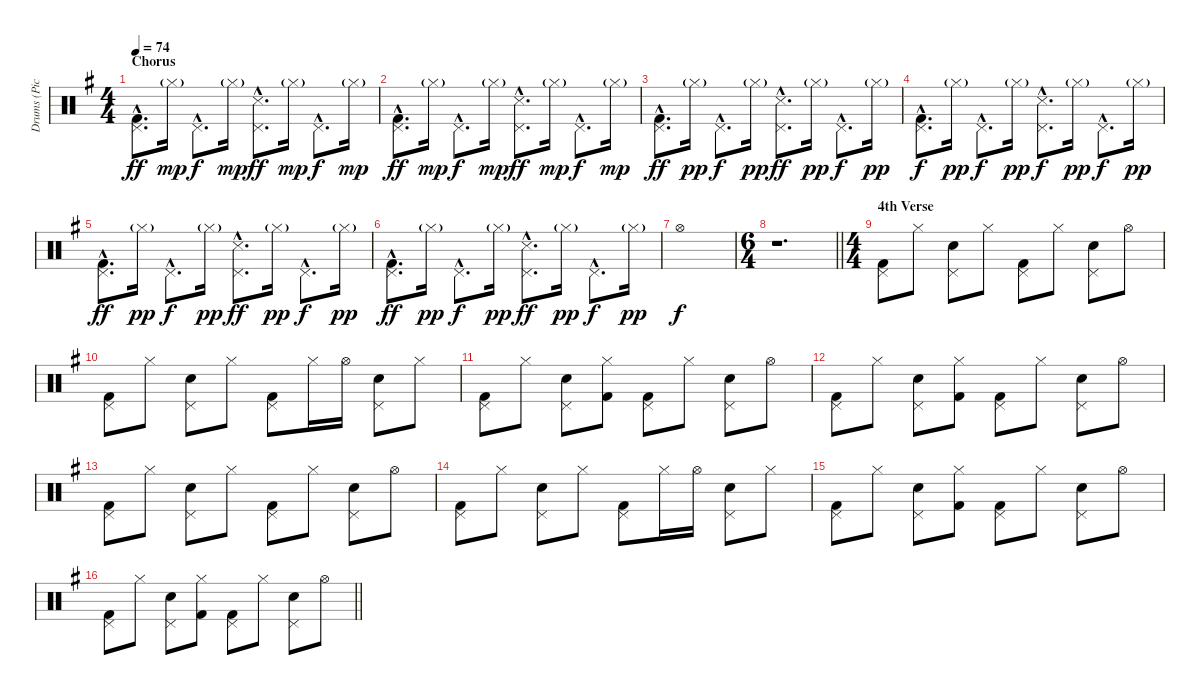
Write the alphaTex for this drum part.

\track ("Drums (Pick)" "Drums (Pic") {instrument percussion}
\staff {score}
\articulation defaults
\ts (4 4)
\section ("" "Chorus")
\tempo 74
\clef neutral
\ks g
("Pedal Hi-Hat (hit)"{hac} "Kick (hit) 2"{hac}).8{d dy ff} "Hi-Hat (closed)"{g}.16{dy mp} "Pedal Hi-Hat (hit)"{hac}.8{d dy f} "Hi-Hat (closed)"{g}.16{dy mp} ("Pedal Hi-Hat (hit)"{hac} "Snare (side stick) 3"{hac}).8{d dy ff} "Hi-Hat (closed)"{g}.16{dy mp} "Pedal Hi-Hat (hit)"{hac}.8{d dy f} "Hi-Hat (closed)"{g}.16{dy mp} |
("Pedal Hi-Hat (hit)"{hac} "Kick (hit) 2"{hac}).8{d dy ff} "Hi-Hat (closed)"{g}.16{dy mp} "Pedal Hi-Hat (hit)"{hac}.8{d dy f} "Hi-Hat (closed)"{g}.16{dy mp} ("Pedal Hi-Hat (hit)"{hac} "Snare (side stick) 3"{hac}).8{d dy ff} "Hi-Hat (closed)"{g}.16{dy mp} "Pedal Hi-Hat (hit)"{hac}.8{d dy f} "Hi-Hat (closed)"{g}.16{dy mp} |
("Pedal Hi-Hat (hit)"{hac} "Kick (hit) 2"{hac}).8{d dy ff} "Hi-Hat (closed)"{g}.16{dy pp} "Pedal Hi-Hat (hit)"{hac}.8{d dy f} "Hi-Hat (closed)"{g}.16{dy pp} ("Pedal Hi-Hat (hit)"{hac} "Snare (side stick) 3"{hac}).8{d dy ff} "Hi-Hat (closed)"{g}.16{dy pp} "Pedal Hi-Hat (hit)"{hac}.8{d dy f} "Hi-Hat (closed)"{g}.16{dy pp} |
("Pedal Hi-Hat (hit)"{hac} "Kick (hit) 2"{hac}).8{d dy f} "Hi-Hat (closed)"{g}.16{dy pp} "Pedal Hi-Hat (hit)"{hac}.8{d dy f} "Hi-Hat (closed)"{g}.16{dy pp} ("Pedal Hi-Hat (hit)"{hac} "Snare (side stick) 3"{hac}).8{d dy f} "Hi-Hat (closed)"{g}.16{dy pp} "Pedal Hi-Hat (hit)"{hac}.8{d dy f} "Hi-Hat (closed)"{g}.16{dy pp} |
("Pedal Hi-Hat (hit)"{hac} "Kick (hit) 2"{hac}).8{d dy ff} "Hi-Hat (closed)"{g}.16{dy pp} "Pedal Hi-Hat (hit)"{hac}.8{d dy f} "Hi-Hat (closed)"{g}.16{dy pp} ("Pedal Hi-Hat (hit)"{hac} "Snare (side stick) 3"{hac}).8{d dy ff} "Hi-Hat (closed)"{g}.16{dy pp} "Pedal Hi-Hat (hit)"{hac}.8{d dy f} "Hi-Hat (closed)"{g}.16{dy pp} |
("Pedal Hi-Hat (hit)"{hac} "Kick (hit) 2"{hac}).8{d dy ff} "Hi-Hat (closed)"{g}.16{dy pp} "Pedal Hi-Hat (hit)"{hac}.8{d dy f} "Hi-Hat (closed)"{g}.16{dy pp} ("Pedal Hi-Hat (hit)"{hac} "Snare (side stick) 3"{hac}).8{d dy ff} "Hi-Hat (closed)"{g}.16{dy pp} "Pedal Hi-Hat (hit)"{hac}.8{d dy f} "Hi-Hat (closed)"{g}.16{dy pp} |
"Hi-Hat (open)".1{dy f} |
\ts (6 4)
\barLineRight lightlight
r.1{d} |
\ts (4 4)
\section ("" "4th Verse")
("Kick (hit) 2" "Pedal Hi-Hat (hit)").8 "Hi-Hat (closed)".8 ("Snare (hit) 2" "Pedal Hi-Hat (hit)").8 "Hi-Hat (closed)".8 ("Kick (hit) 2" "Pedal Hi-Hat (hit)").8 "Hi-Hat (closed)".8 ("Snare (hit) 2" "Pedal Hi-Hat (hit)").8 "Hi-Hat (open)".8 |
("Kick (hit) 2" "Pedal Hi-Hat (hit)").8 "Hi-Hat (closed)".8 ("Snare (hit) 2" "Pedal Hi-Hat (hit)").8 "Hi-Hat (closed)".8 ("Kick (hit) 2" "Pedal Hi-Hat (hit)").8 "Hi-Hat (closed)".16 "Hi-Hat (open)".16 ("Snare (hit) 2" "Pedal Hi-Hat (hit)").8 "Hi-Hat (closed)".8 |
("Kick (hit) 2" "Pedal Hi-Hat (hit)").8 "Hi-Hat (closed)".8 ("Snare (hit) 2" "Pedal Hi-Hat (hit)").8 ("Hi-Hat (closed)" "Kick (hit) 2").8 ("Kick (hit) 2" "Pedal Hi-Hat (hit)").8 "Hi-Hat (closed)".8 ("Snare (hit) 2" "Pedal Hi-Hat (hit)").8 "Hi-Hat (open)".8 |
("Kick (hit) 2" "Pedal Hi-Hat (hit)").8 "Hi-Hat (closed)".8 ("Snare (hit) 2" "Pedal Hi-Hat (hit)").8 ("Hi-Hat (closed)" "Kick (hit) 2").8 ("Kick (hit) 2" "Pedal Hi-Hat (hit)").8 "Hi-Hat (closed)".8 ("Snare (hit) 2" "Pedal Hi-Hat (hit)").8 "Hi-Hat (open)".8 |
("Kick (hit) 2" "Pedal Hi-Hat (hit)").8 "Hi-Hat (closed)".8 ("Snare (hit) 2" "Pedal Hi-Hat (hit)").8 "Hi-Hat (closed)".8 ("Kick (hit) 2" "Pedal Hi-Hat (hit)").8 "Hi-Hat (closed)".8 ("Snare (hit) 2" "Pedal Hi-Hat (hit)").8 "Hi-Hat (open)".8 |
("Kick (hit) 2" "Pedal Hi-Hat (hit)").8 "Hi-Hat (closed)".8 ("Snare (hit) 2" "Pedal Hi-Hat (hit)").8 "Hi-Hat (closed)".8 ("Kick (hit) 2" "Pedal Hi-Hat (hit)").8 "Hi-Hat (closed)".16 "Hi-Hat (open)".16 ("Snare (hit) 2" "Pedal Hi-Hat (hit)").8 "Hi-Hat (closed)".8 |
("Kick (hit) 2" "Pedal Hi-Hat (hit)").8 "Hi-Hat (closed)".8 ("Snare (hit) 2" "Pedal Hi-Hat (hit)").8 ("Hi-Hat (closed)" "Kick (hit) 2").8 ("Kick (hit) 2" "Pedal Hi-Hat (hit)").8 "Hi-Hat (closed)".8 ("Snare (hit) 2" "Pedal Hi-Hat (hit)").8 "Hi-Hat (open)".8 |
\barLineRight lightlight
("Kick (hit) 2" "Pedal Hi-Hat (hit)").8 "Hi-Hat (closed)".8 ("Snare (hit) 2" "Pedal Hi-Hat (hit)").8 ("Hi-Hat (closed)" "Kick (hit) 2").8 ("Kick (hit) 2" "Pedal Hi-Hat (hit)").8 "Hi-Hat (closed)".8 ("Snare (hit) 2" "Pedal Hi-Hat (hit)").8 "Hi-Hat (open)".8
